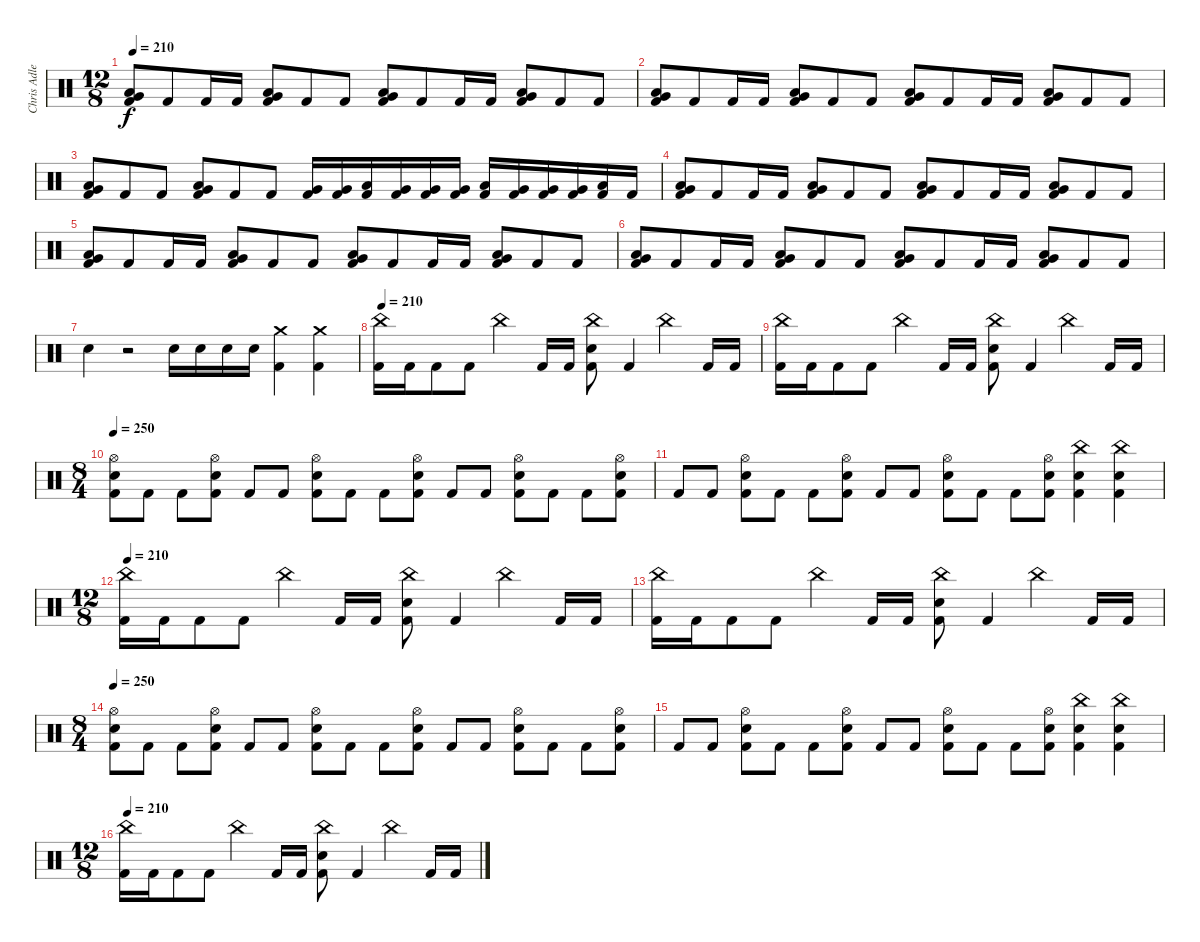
\track ("Chris Adler" "Chris Adle") {instrument percussion}
\staff {score}
\articulation defaults
\ts (12 8)
\tempo 210
\clef neutral
\ks c
("Very Low Tom (hit)" "Low Tom (hit)" "Kick (hit) 2").8{dy f} "Kick (hit) 2".8 "Kick (hit) 2".16 "Kick (hit) 2".16 ("Very Low Tom (hit)" "Low Tom (hit)" "Kick (hit) 2").8 "Kick (hit) 2".8 "Kick (hit) 2".8 ("Very Low Tom (hit)" "Low Tom (hit)" "Kick (hit) 2").8 "Kick (hit) 2".8 "Kick (hit) 2".16 "Kick (hit) 2".16 ("Very Low Tom (hit)" "Low Tom (hit)" "Kick (hit) 2").8 "Kick (hit) 2".8 "Kick (hit) 2".8 |
("Very Low Tom (hit)" "Low Tom (hit)" "Kick (hit) 2").8 "Kick (hit) 2".8 "Kick (hit) 2".16 "Kick (hit) 2".16 ("Very Low Tom (hit)" "Low Tom (hit)" "Kick (hit) 2").8 "Kick (hit) 2".8 "Kick (hit) 2".8 ("Very Low Tom (hit)" "Low Tom (hit)" "Kick (hit) 2").8 "Kick (hit) 2".8 "Kick (hit) 2".16 "Kick (hit) 2".16 ("Very Low Tom (hit)" "Low Tom (hit)" "Kick (hit) 2").8 "Kick (hit) 2".8 "Kick (hit) 2".8 |
("Very Low Tom (hit)" "Low Tom (hit)" "Kick (hit) 2").8 "Kick (hit) 2".8 "Kick (hit) 2".8 ("Very Low Tom (hit)" "Low Tom (hit)" "Kick (hit) 2").8 "Kick (hit) 2".8 "Kick (hit) 2".8 ("Very Low Tom (hit)" "Kick (hit) 2").16 ("Very Low Tom (hit)" "Kick (hit) 2").16 ("Low Tom (hit)" "Kick (hit) 2").16 ("Very Low Tom (hit)" "Kick (hit) 2").16 ("Very Low Tom (hit)" "Kick (hit) 2").16 ("Very Low Tom (hit)" "Kick (hit) 2").16 ("Low Tom (hit)" "Kick (hit) 2").16 ("Very Low Tom (hit)" "Kick (hit) 2").16 ("Very Low Tom (hit)" "Kick (hit) 2").16 ("Very Low Tom (hit)" "Kick (hit) 2").16 ("Low Tom (hit)" "Kick (hit) 2").16 "Kick (hit) 2".16 |
("Very Low Tom (hit)" "Low Tom (hit)" "Kick (hit) 2").8 "Kick (hit) 2".8 "Kick (hit) 2".16 "Kick (hit) 2".16 ("Very Low Tom (hit)" "Low Tom (hit)" "Kick (hit) 2").8 "Kick (hit) 2".8 "Kick (hit) 2".8 ("Very Low Tom (hit)" "Low Tom (hit)" "Kick (hit) 2").8 "Kick (hit) 2".8 "Kick (hit) 2".16 "Kick (hit) 2".16 ("Very Low Tom (hit)" "Low Tom (hit)" "Kick (hit) 2").8 "Kick (hit) 2".8 "Kick (hit) 2".8 |
("Very Low Tom (hit)" "Low Tom (hit)" "Kick (hit) 2").8 "Kick (hit) 2".8 "Kick (hit) 2".16 "Kick (hit) 2".16 ("Very Low Tom (hit)" "Low Tom (hit)" "Kick (hit) 2").8 "Kick (hit) 2".8 "Kick (hit) 2".8 ("Very Low Tom (hit)" "Low Tom (hit)" "Kick (hit) 2").8 "Kick (hit) 2".8 "Kick (hit) 2".16 "Kick (hit) 2".16 ("Very Low Tom (hit)" "Low Tom (hit)" "Kick (hit) 2").8 "Kick (hit) 2".8 "Kick (hit) 2".8 |
("Very Low Tom (hit)" "Low Tom (hit)" "Kick (hit) 2").8 "Kick (hit) 2".8 "Kick (hit) 2".16 "Kick (hit) 2".16 ("Very Low Tom (hit)" "Low Tom (hit)" "Kick (hit) 2").8 "Kick (hit) 2".8 "Kick (hit) 2".8 ("Very Low Tom (hit)" "Low Tom (hit)" "Kick (hit) 2").8 "Kick (hit) 2".8 "Kick (hit) 2".16 "Kick (hit) 2".16 ("Very Low Tom (hit)" "Low Tom (hit)" "Kick (hit) 2").8 "Kick (hit) 2".8 "Kick (hit) 2".8 |
"Snare (hit) 2".4 r.2 "Snare (hit) 2".16 "Snare (hit) 2".16 "Snare (hit) 2".16 "Snare (hit) 2".16 ("Crash medium (hit)" "Kick (hit) 2").4 ("Crash medium (hit)" "Kick (hit) 2").4 |
\tempo 210
("China (hit)" "Kick (hit) 2").16 "Kick (hit) 2".16 "Kick (hit) 2".8 "Kick (hit) 2".8 "China (hit)".4 "Kick (hit) 2".16 "Kick (hit) 2".16 ("China (hit)" "Snare (hit) 2" "Kick (hit) 2").8 "Kick (hit) 2".4 "China (hit)".4 "Kick (hit) 2".16 "Kick (hit) 2".16 |
("China (hit)" "Kick (hit) 2").16 "Kick (hit) 2".16 "Kick (hit) 2".8 "Kick (hit) 2".8 "China (hit)".4 "Kick (hit) 2".16 "Kick (hit) 2".16 ("China (hit)" "Snare (hit) 2" "Kick (hit) 2").8 "Kick (hit) 2".4 "China (hit)".4 "Kick (hit) 2".16 "Kick (hit) 2".16 |
\ts (8 4)
\tempo 250
("Hi-Hat (open)" "Snare (hit) 2" "Kick (hit) 2").8 "Kick (hit) 2".8 "Kick (hit) 2".8 ("Hi-Hat (open)" "Snare (hit) 2" "Kick (hit) 2").8 "Kick (hit) 2".8 "Kick (hit) 2".8 ("Hi-Hat (open)" "Snare (hit) 2" "Kick (hit) 2").8 "Kick (hit) 2".8 "Kick (hit) 2".8 ("Hi-Hat (open)" "Snare (hit) 2" "Kick (hit) 2").8 "Kick (hit) 2".8 "Kick (hit) 2".8 ("Hi-Hat (open)" "Snare (hit) 2" "Kick (hit) 2").8 "Kick (hit) 2".8 "Kick (hit) 2".8 ("Hi-Hat (open)" "Snare (hit) 2" "Kick (hit) 2").8 |
"Kick (hit) 2".8 "Kick (hit) 2".8 ("Hi-Hat (open)" "Snare (hit) 2" "Kick (hit) 2").8 "Kick (hit) 2".8 "Kick (hit) 2".8 ("Hi-Hat (open)" "Snare (hit) 2" "Kick (hit) 2").8 "Kick (hit) 2".8 "Kick (hit) 2".8 ("Hi-Hat (open)" "Snare (hit) 2" "Kick (hit) 2").8 "Kick (hit) 2".8 "Kick (hit) 2".8 ("Hi-Hat (open)" "Snare (hit) 2" "Kick (hit) 2").8 ("China (hit)" "Snare (hit) 2" "Kick (hit) 2").4 ("China (hit)" "Snare (hit) 2" "Kick (hit) 2").4 |
\ts (12 8)
\tempo 210
("China (hit)" "Kick (hit) 2").16 "Kick (hit) 2".16 "Kick (hit) 2".8 "Kick (hit) 2".8 "China (hit)".4 "Kick (hit) 2".16 "Kick (hit) 2".16 ("China (hit)" "Snare (hit) 2" "Kick (hit) 2").8 "Kick (hit) 2".4 "China (hit)".4 "Kick (hit) 2".16 "Kick (hit) 2".16 |
("China (hit)" "Kick (hit) 2").16 "Kick (hit) 2".16 "Kick (hit) 2".8 "Kick (hit) 2".8 "China (hit)".4 "Kick (hit) 2".16 "Kick (hit) 2".16 ("China (hit)" "Snare (hit) 2" "Kick (hit) 2").8 "Kick (hit) 2".4 "China (hit)".4 "Kick (hit) 2".16 "Kick (hit) 2".16 |
\ts (8 4)
\tempo 250
("Hi-Hat (open)" "Snare (hit) 2" "Kick (hit) 2").8 "Kick (hit) 2".8 "Kick (hit) 2".8 ("Hi-Hat (open)" "Snare (hit) 2" "Kick (hit) 2").8 "Kick (hit) 2".8 "Kick (hit) 2".8 ("Hi-Hat (open)" "Snare (hit) 2" "Kick (hit) 2").8 "Kick (hit) 2".8 "Kick (hit) 2".8 ("Hi-Hat (open)" "Snare (hit) 2" "Kick (hit) 2").8 "Kick (hit) 2".8 "Kick (hit) 2".8 ("Hi-Hat (open)" "Snare (hit) 2" "Kick (hit) 2").8 "Kick (hit) 2".8 "Kick (hit) 2".8 ("Hi-Hat (open)" "Snare (hit) 2" "Kick (hit) 2").8 |
"Kick (hit) 2".8 "Kick (hit) 2".8 ("Hi-Hat (open)" "Snare (hit) 2" "Kick (hit) 2").8 "Kick (hit) 2".8 "Kick (hit) 2".8 ("Hi-Hat (open)" "Snare (hit) 2" "Kick (hit) 2").8 "Kick (hit) 2".8 "Kick (hit) 2".8 ("Hi-Hat (open)" "Snare (hit) 2" "Kick (hit) 2").8 "Kick (hit) 2".8 "Kick (hit) 2".8 ("Hi-Hat (open)" "Snare (hit) 2" "Kick (hit) 2").8 ("China (hit)" "Snare (hit) 2" "Kick (hit) 2").4 ("China (hit)" "Snare (hit) 2" "Kick (hit) 2").4 |
\ts (12 8)
\tempo 210
("China (hit)" "Kick (hit) 2").16 "Kick (hit) 2".16 "Kick (hit) 2".8 "Kick (hit) 2".8 "China (hit)".4 "Kick (hit) 2".16 "Kick (hit) 2".16 ("China (hit)" "Snare (hit) 2" "Kick (hit) 2").8 "Kick (hit) 2".4 "China (hit)".4 "Kick (hit) 2".16 "Kick (hit) 2".16
